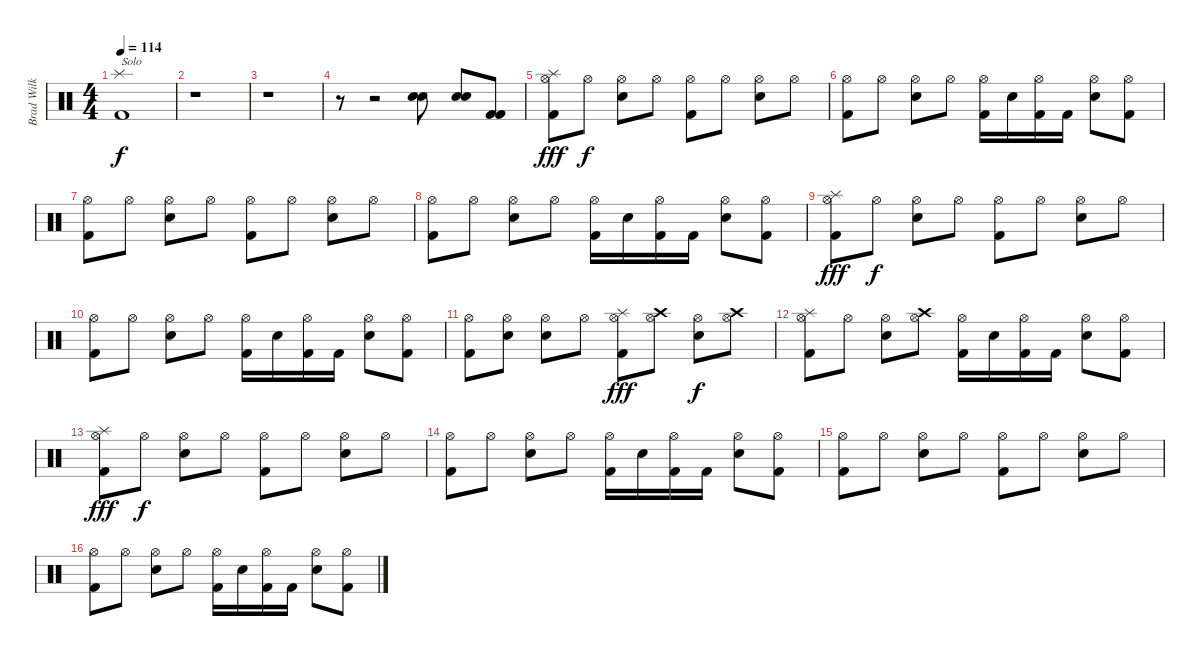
\track ("Brad Wilk" "Brad Wilk") {instrument percussion}
\staff {score}
\articulation defaults
\ts (4 4)
\tempo 114
\clef neutral
\ks c
("Kick (hit) 2" "Splash (hit)").1{txt "Solo" dy f} |
r.1 |
r.1 |
r.8 r.2 ("Snare (hit) 2" "Snare (hit) 2").8 ("Snare (hit) 2" "Snare (hit) 2").8 ("Kick (hit) 2" "Kick (hit) 2").8 |
("Hi-Hat (open)" "Kick (hit) 2" "Splash (hit)").8{dy fff} "Hi-Hat (open)".8{dy f} ("Hi-Hat (open)" "Snare (hit) 2").8 "Hi-Hat (open)".8 ("Hi-Hat (open)" "Kick (hit) 2").8 "Hi-Hat (open)".8 ("Hi-Hat (open)" "Snare (hit) 2").8 "Hi-Hat (open)".8 |
("Hi-Hat (open)" "Kick (hit) 2").8 "Hi-Hat (open)".8 ("Hi-Hat (open)" "Snare (hit) 2").8 "Hi-Hat (open)".8 ("Hi-Hat (open)" "Kick (hit) 2").16 "Snare (hit) 2".16 ("Hi-Hat (open)" "Kick (hit) 2").16 "Kick (hit) 2".16 ("Hi-Hat (open)" "Snare (hit) 2").8 ("Hi-Hat (open)" "Kick (hit) 2").8 |
("Hi-Hat (open)" "Kick (hit) 2").8 "Hi-Hat (open)".8 ("Hi-Hat (open)" "Snare (hit) 2").8 "Hi-Hat (open)".8 ("Hi-Hat (open)" "Kick (hit) 2").8 "Hi-Hat (open)".8 ("Hi-Hat (open)" "Snare (hit) 2").8 "Hi-Hat (open)".8 |
("Hi-Hat (open)" "Kick (hit) 2").8 "Hi-Hat (open)".8 ("Hi-Hat (open)" "Snare (hit) 2").8 "Hi-Hat (open)".8 ("Hi-Hat (open)" "Kick (hit) 2").16 "Snare (hit) 2".16 ("Hi-Hat (open)" "Kick (hit) 2").16 "Kick (hit) 2".16 ("Hi-Hat (open)" "Snare (hit) 2").8 ("Hi-Hat (open)" "Kick (hit) 2").8 |
("Hi-Hat (open)" "Kick (hit) 2" "Splash (hit)").8{dy fff} "Hi-Hat (open)".8{dy f} ("Hi-Hat (open)" "Snare (hit) 2").8 "Hi-Hat (open)".8 ("Hi-Hat (open)" "Kick (hit) 2").8 "Hi-Hat (open)".8 ("Hi-Hat (open)" "Snare (hit) 2").8 "Hi-Hat (open)".8 |
("Hi-Hat (open)" "Kick (hit) 2").8 "Hi-Hat (open)".8 ("Hi-Hat (open)" "Snare (hit) 2").8 "Hi-Hat (open)".8 ("Hi-Hat (open)" "Kick (hit) 2").16 "Snare (hit) 2".16 ("Hi-Hat (open)" "Kick (hit) 2").16 "Kick (hit) 2".16 ("Hi-Hat (open)" "Snare (hit) 2").8 ("Hi-Hat (open)" "Kick (hit) 2").8 |
("Hi-Hat (open)" "Kick (hit) 2").8 ("Hi-Hat (open)" "Snare (hit) 2").8 ("Hi-Hat (open)" "Snare (hit) 2").8 "Hi-Hat (open)".8 ("Hi-Hat (open)" "Kick (hit) 2" "Splash (hit)").8{dy fff} ("Hi-Hat (open)" "Crash high (hit)").8 ("Hi-Hat (open)" "Snare (hit) 2").8{dy f} ("Hi-Hat (open)" "Crash high (hit)").8 |
("Hi-Hat (open)" "Kick (hit) 2" "Splash (hit)").8 "Hi-Hat (open)".8 ("Hi-Hat (open)" "Snare (hit) 2").8 ("Hi-Hat (open)" "Crash high (hit)").8 ("Hi-Hat (open)" "Kick (hit) 2").16 "Snare (hit) 2".16 ("Hi-Hat (open)" "Kick (hit) 2").16 "Kick (hit) 2".16 ("Hi-Hat (open)" "Snare (hit) 2").8 ("Hi-Hat (open)" "Kick (hit) 2").8 |
("Hi-Hat (open)" "Kick (hit) 2" "Splash (hit)").8{dy fff} "Hi-Hat (open)".8{dy f} ("Hi-Hat (open)" "Snare (hit) 2").8 "Hi-Hat (open)".8 ("Hi-Hat (open)" "Kick (hit) 2").8 "Hi-Hat (open)".8 ("Hi-Hat (open)" "Snare (hit) 2").8 "Hi-Hat (open)".8 |
("Hi-Hat (open)" "Kick (hit) 2").8 "Hi-Hat (open)".8 ("Hi-Hat (open)" "Snare (hit) 2").8 "Hi-Hat (open)".8 ("Hi-Hat (open)" "Kick (hit) 2").16 "Snare (hit) 2".16 ("Hi-Hat (open)" "Kick (hit) 2").16 "Kick (hit) 2".16 ("Hi-Hat (open)" "Snare (hit) 2").8 ("Hi-Hat (open)" "Kick (hit) 2").8 |
("Hi-Hat (open)" "Kick (hit) 2").8 "Hi-Hat (open)".8 ("Hi-Hat (open)" "Snare (hit) 2").8 "Hi-Hat (open)".8 ("Hi-Hat (open)" "Kick (hit) 2").8 "Hi-Hat (open)".8 ("Hi-Hat (open)" "Snare (hit) 2").8 "Hi-Hat (open)".8 |
("Hi-Hat (open)" "Kick (hit) 2").8 "Hi-Hat (open)".8 ("Hi-Hat (open)" "Snare (hit) 2").8 "Hi-Hat (open)".8 ("Hi-Hat (open)" "Kick (hit) 2").16 "Snare (hit) 2".16 ("Hi-Hat (open)" "Kick (hit) 2").16 "Kick (hit) 2".16 ("Hi-Hat (open)" "Snare (hit) 2").8 ("Hi-Hat (open)" "Kick (hit) 2").8
